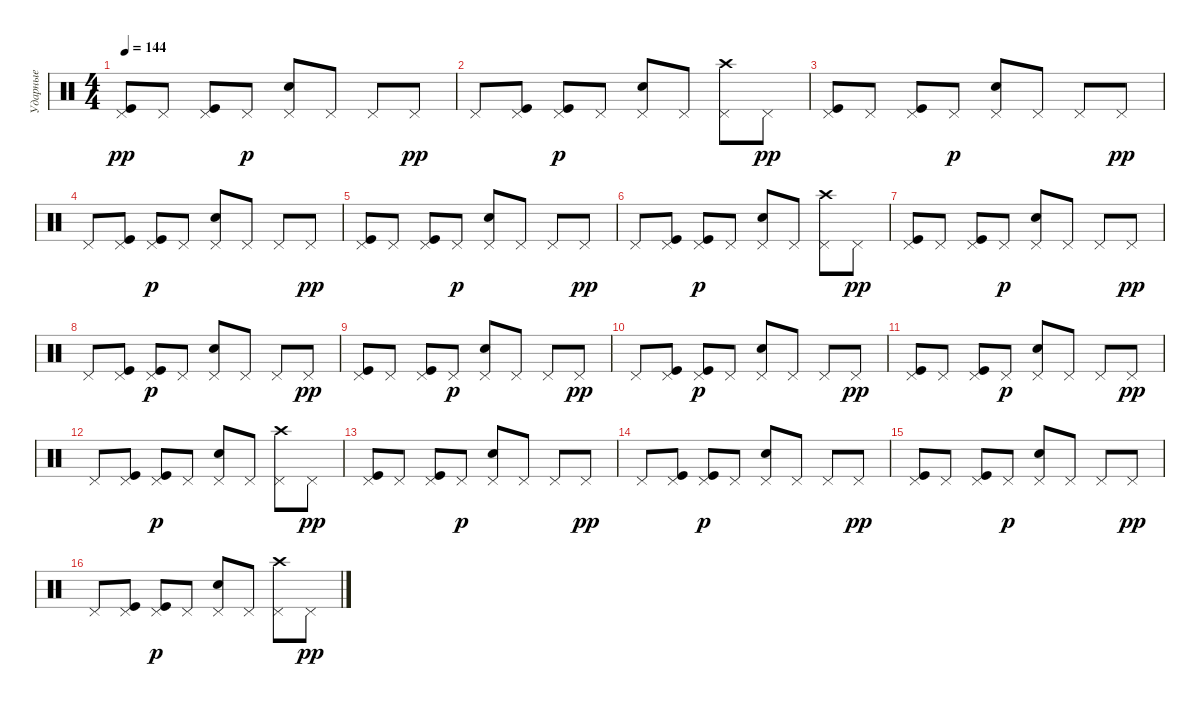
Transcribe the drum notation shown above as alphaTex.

\track ("Ударные" "Ударные") {instrument percussion}
\staff {score}
\articulation defaults
\ts (4 4)
\tempo 144
\clef neutral
\ks c
("Kick (hit)" "Pedal Hi-Hat (hit)").8{dy pp} "Pedal Hi-Hat (hit)".8 ("Kick (hit)" "Pedal Hi-Hat (hit)").8 "Pedal Hi-Hat (hit)".8{dy p} ("Snare (hit) 2" "Pedal Hi-Hat (hit)").8 "Pedal Hi-Hat (hit)".8 "Pedal Hi-Hat (hit)".8 "Pedal Hi-Hat (hit)".8{dy pp} |
"Pedal Hi-Hat (hit)".8 ("Kick (hit)" "Pedal Hi-Hat (hit)").8 ("Kick (hit)" "Pedal Hi-Hat (hit)").8{dy p} "Pedal Hi-Hat (hit)".8 ("Snare (hit) 2" "Pedal Hi-Hat (hit)").8 "Pedal Hi-Hat (hit)".8 ("Crash high (hit)" "Pedal Hi-Hat (hit)").8 "Pedal Hi-Hat (hit)".8{dy pp} |
("Kick (hit)" "Pedal Hi-Hat (hit)").8 "Pedal Hi-Hat (hit)".8 ("Kick (hit)" "Pedal Hi-Hat (hit)").8 "Pedal Hi-Hat (hit)".8{dy p} ("Snare (hit) 2" "Pedal Hi-Hat (hit)").8 "Pedal Hi-Hat (hit)".8 "Pedal Hi-Hat (hit)".8 "Pedal Hi-Hat (hit)".8{dy pp} |
"Pedal Hi-Hat (hit)".8 ("Kick (hit)" "Pedal Hi-Hat (hit)").8 ("Kick (hit)" "Pedal Hi-Hat (hit)").8{dy p} "Pedal Hi-Hat (hit)".8 ("Snare (hit) 2" "Pedal Hi-Hat (hit)").8 "Pedal Hi-Hat (hit)".8 "Pedal Hi-Hat (hit)".8 "Pedal Hi-Hat (hit)".8{dy pp} |
("Kick (hit)" "Pedal Hi-Hat (hit)").8 "Pedal Hi-Hat (hit)".8 ("Kick (hit)" "Pedal Hi-Hat (hit)").8 "Pedal Hi-Hat (hit)".8{dy p} ("Snare (hit) 2" "Pedal Hi-Hat (hit)").8 "Pedal Hi-Hat (hit)".8 "Pedal Hi-Hat (hit)".8 "Pedal Hi-Hat (hit)".8{dy pp} |
"Pedal Hi-Hat (hit)".8 ("Kick (hit)" "Pedal Hi-Hat (hit)").8 ("Kick (hit)" "Pedal Hi-Hat (hit)").8{dy p} "Pedal Hi-Hat (hit)".8 ("Snare (hit) 2" "Pedal Hi-Hat (hit)").8 "Pedal Hi-Hat (hit)".8 ("Crash high (hit)" "Pedal Hi-Hat (hit)").8 "Pedal Hi-Hat (hit)".8{dy pp} |
("Kick (hit)" "Pedal Hi-Hat (hit)").8 "Pedal Hi-Hat (hit)".8 ("Kick (hit)" "Pedal Hi-Hat (hit)").8 "Pedal Hi-Hat (hit)".8{dy p} ("Snare (hit) 2" "Pedal Hi-Hat (hit)").8 "Pedal Hi-Hat (hit)".8 "Pedal Hi-Hat (hit)".8 "Pedal Hi-Hat (hit)".8{dy pp} |
"Pedal Hi-Hat (hit)".8 ("Kick (hit)" "Pedal Hi-Hat (hit)").8 ("Kick (hit)" "Pedal Hi-Hat (hit)").8{dy p} "Pedal Hi-Hat (hit)".8 ("Snare (hit) 2" "Pedal Hi-Hat (hit)").8 "Pedal Hi-Hat (hit)".8 "Pedal Hi-Hat (hit)".8 "Pedal Hi-Hat (hit)".8{dy pp} |
("Kick (hit)" "Pedal Hi-Hat (hit)").8 "Pedal Hi-Hat (hit)".8 ("Kick (hit)" "Pedal Hi-Hat (hit)").8 "Pedal Hi-Hat (hit)".8{dy p} ("Snare (hit) 2" "Pedal Hi-Hat (hit)").8 "Pedal Hi-Hat (hit)".8 "Pedal Hi-Hat (hit)".8 "Pedal Hi-Hat (hit)".8{dy pp} |
"Pedal Hi-Hat (hit)".8 ("Kick (hit)" "Pedal Hi-Hat (hit)").8 ("Kick (hit)" "Pedal Hi-Hat (hit)").8{dy p} "Pedal Hi-Hat (hit)".8 ("Snare (hit) 2" "Pedal Hi-Hat (hit)").8 "Pedal Hi-Hat (hit)".8 "Pedal Hi-Hat (hit)".8 "Pedal Hi-Hat (hit)".8{dy pp} |
("Kick (hit)" "Pedal Hi-Hat (hit)").8 "Pedal Hi-Hat (hit)".8 ("Kick (hit)" "Pedal Hi-Hat (hit)").8 "Pedal Hi-Hat (hit)".8{dy p} ("Snare (hit) 2" "Pedal Hi-Hat (hit)").8 "Pedal Hi-Hat (hit)".8 "Pedal Hi-Hat (hit)".8 "Pedal Hi-Hat (hit)".8{dy pp} |
"Pedal Hi-Hat (hit)".8 ("Kick (hit)" "Pedal Hi-Hat (hit)").8 ("Kick (hit)" "Pedal Hi-Hat (hit)").8{dy p} "Pedal Hi-Hat (hit)".8 ("Snare (hit) 2" "Pedal Hi-Hat (hit)").8 "Pedal Hi-Hat (hit)".8 ("Crash high (hit)" "Pedal Hi-Hat (hit)").8 "Pedal Hi-Hat (hit)".8{dy pp} |
("Kick (hit)" "Pedal Hi-Hat (hit)").8 "Pedal Hi-Hat (hit)".8 ("Kick (hit)" "Pedal Hi-Hat (hit)").8 "Pedal Hi-Hat (hit)".8{dy p} ("Snare (hit) 2" "Pedal Hi-Hat (hit)").8 "Pedal Hi-Hat (hit)".8 "Pedal Hi-Hat (hit)".8 "Pedal Hi-Hat (hit)".8{dy pp} |
"Pedal Hi-Hat (hit)".8 ("Kick (hit)" "Pedal Hi-Hat (hit)").8 ("Kick (hit)" "Pedal Hi-Hat (hit)").8{dy p} "Pedal Hi-Hat (hit)".8 ("Snare (hit) 2" "Pedal Hi-Hat (hit)").8 "Pedal Hi-Hat (hit)".8 "Pedal Hi-Hat (hit)".8 "Pedal Hi-Hat (hit)".8{dy pp} |
("Kick (hit)" "Pedal Hi-Hat (hit)").8 "Pedal Hi-Hat (hit)".8 ("Kick (hit)" "Pedal Hi-Hat (hit)").8 "Pedal Hi-Hat (hit)".8{dy p} ("Snare (hit) 2" "Pedal Hi-Hat (hit)").8 "Pedal Hi-Hat (hit)".8 "Pedal Hi-Hat (hit)".8 "Pedal Hi-Hat (hit)".8{dy pp} |
"Pedal Hi-Hat (hit)".8 ("Kick (hit)" "Pedal Hi-Hat (hit)").8 ("Kick (hit)" "Pedal Hi-Hat (hit)").8{dy p} "Pedal Hi-Hat (hit)".8 ("Snare (hit) 2" "Pedal Hi-Hat (hit)").8 "Pedal Hi-Hat (hit)".8 ("Crash high (hit)" "Pedal Hi-Hat (hit)").8 "Pedal Hi-Hat (hit)".8{dy pp}
